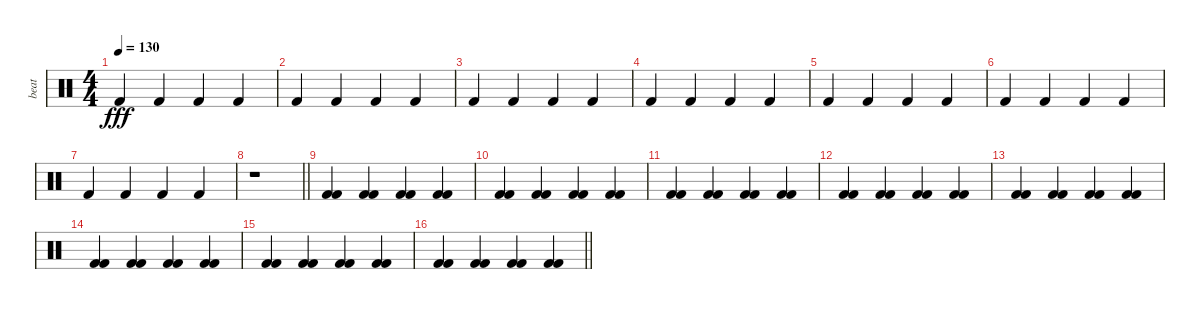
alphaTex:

\track ("beat" "beat") {instrument percussion}
\staff {score}
\articulation defaults
\ts (4 4)
\tempo 130
\clef neutral
\ks c "Kick (hit) 2".4{dy fff} "Kick (hit) 2".4 "Kick (hit) 2".4 "Kick (hit) 2".4
|
"Kick (hit) 2".4 "Kick (hit) 2".4 "Kick (hit) 2".4 "Kick (hit) 2".4 |
"Kick (hit) 2".4 "Kick (hit) 2".4 "Kick (hit) 2".4 "Kick (hit) 2".4 |
"Kick (hit) 2".4 "Kick (hit) 2".4 "Kick (hit) 2".4 "Kick (hit) 2".4 |
"Kick (hit) 2".4 "Kick (hit) 2".4 "Kick (hit) 2".4 "Kick (hit) 2".4 |
"Kick (hit) 2".4 "Kick (hit) 2".4 "Kick (hit) 2".4 "Kick (hit) 2".4 |
"Kick (hit) 2".4 "Kick (hit) 2".4 "Kick (hit) 2".4 "Kick (hit) 2".4 |
\barLineRight lightlight
r.1 |
("Kick (hit) 2" "Kick (hit) 2").4 ("Kick (hit) 2" "Kick (hit) 2").4 ("Kick (hit) 2" "Kick (hit) 2").4 ("Kick (hit) 2" "Kick (hit) 2").4 |
("Kick (hit) 2" "Kick (hit) 2").4 ("Kick (hit) 2" "Kick (hit) 2").4 ("Kick (hit) 2" "Kick (hit) 2").4 ("Kick (hit) 2" "Kick (hit) 2").4 |
("Kick (hit) 2" "Kick (hit) 2").4 ("Kick (hit) 2" "Kick (hit) 2").4 ("Kick (hit) 2" "Kick (hit) 2").4 ("Kick (hit) 2" "Kick (hit) 2").4 |
("Kick (hit) 2" "Kick (hit) 2").4 ("Kick (hit) 2" "Kick (hit) 2").4 ("Kick (hit) 2" "Kick (hit) 2").4 ("Kick (hit) 2" "Kick (hit) 2").4 |
("Kick (hit) 2" "Kick (hit) 2").4 ("Kick (hit) 2" "Kick (hit) 2").4 ("Kick (hit) 2" "Kick (hit) 2").4 ("Kick (hit) 2" "Kick (hit) 2").4 |
("Kick (hit) 2" "Kick (hit) 2").4 ("Kick (hit) 2" "Kick (hit) 2").4 ("Kick (hit) 2" "Kick (hit) 2").4 ("Kick (hit) 2" "Kick (hit) 2").4 |
("Kick (hit) 2" "Kick (hit) 2").4 ("Kick (hit) 2" "Kick (hit) 2").4 ("Kick (hit) 2" "Kick (hit) 2").4 ("Kick (hit) 2" "Kick (hit) 2").4 |
\barLineRight lightlight
("Kick (hit) 2" "Kick (hit) 2").4 ("Kick (hit) 2" "Kick (hit) 2").4 ("Kick (hit) 2" "Kick (hit) 2").4 ("Kick (hit) 2" "Kick (hit) 2").4
